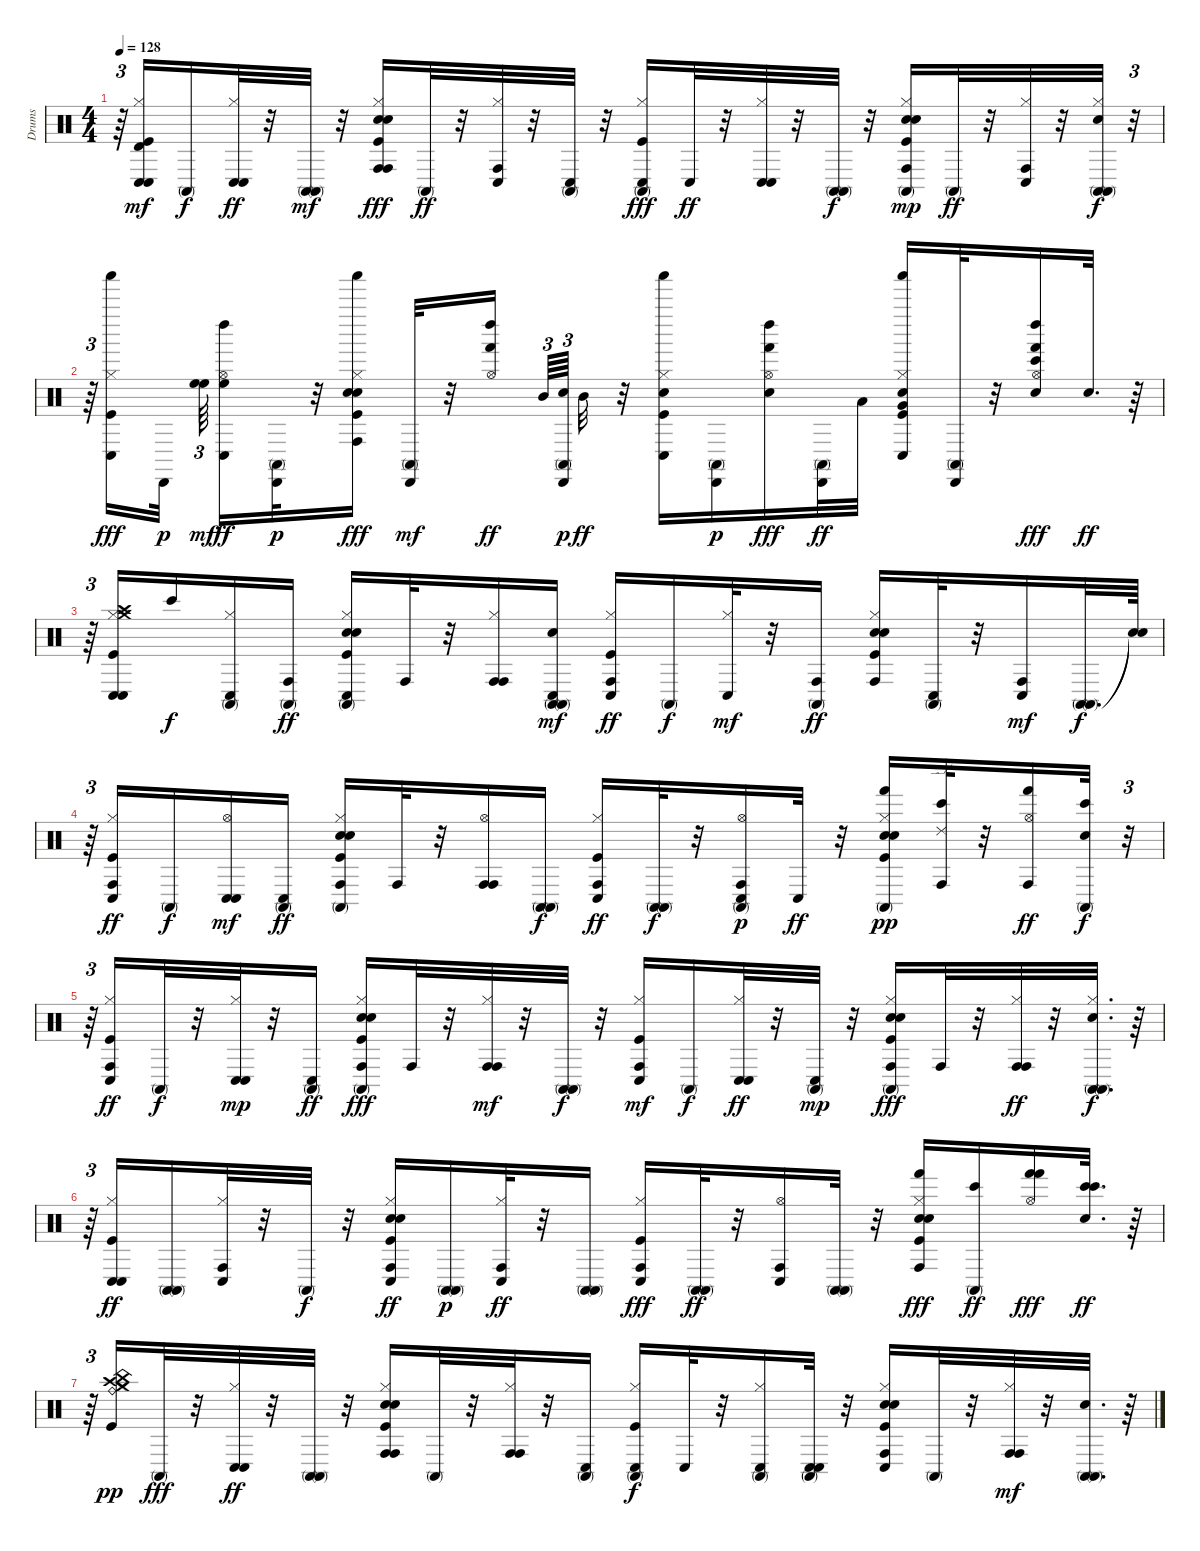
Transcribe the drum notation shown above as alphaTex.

\track ("Drums" "Drums") {instrument percussion}
\staff {score}
\articulation defaults
\ts (4 4)
\tempo 128
\clef neutral
\ks c
r.64{tu (3 2) dy f} ("Kick (hit)" "Hi-Hat (closed)" "Conga low (hit)" "Conga low (hit)" "Timbale high (hit)").16{dy mf} "Conga high (mute)".16{dy f} ("Hi-Hat (closed)" "Conga low (hit)" "Conga low (hit)").32{dy ff} r.32 ("Conga high (mute)" "Conga high (mute)").32{dy mf} r.32 ("Kick (hit)" "Snare (hit) 2" "Hand Clap (hit)" "Hi-Hat (closed)" "Conga high (hit)" "Conga high (hit)").16{dy fff} "Conga high (mute)".32{dy ff} r.32 ("Hi-Hat (closed)" "Conga low (hit)" "Conga high (hit)").32 r.32 ("Conga low (hit)" "Conga high (mute)").32 r.32 ("Kick (hit)" "Hi-Hat (closed)" "Conga high (mute)" "Conga low (hit)").16{dy fff} "Conga low (hit)".32{dy ff} r.32 ("Hi-Hat (closed)" "Conga low (hit)" "Conga low (hit)").32 r.32 ("Conga high (mute)" "Conga high (mute)").32{dy f} r.32 ("Kick (hit)" "Snare (hit) 2" "Hand Clap (hit)" "Hi-Hat (closed)" "Conga high (hit)" "Conga high (mute)").16{dy mp} "Conga high (mute)".32{dy ff} r.32 ("Hi-Hat (closed)" "Conga low (hit)" "Conga high (hit)").32 r.32 ("Snare (hit) 2" "Hi-Hat (closed)" "Conga high (mute)" "Conga high (mute)").32{dy f} r.32{tu (3 2)} |
r.64{tu (3 2)} ("Kick (hit)" "Hi-Hat (closed)" "Shaker (hit)" "Conga low (hit)").16{dy fff} "Cabasa (hit)".32{dy p beam splitsecondary} ("High Floor Tom (hit)" "High Floor Tom (hit)").64{tu (3 2) dy mf beam splitsecondary} ("Hi-Hat (open)" "Left Maraca (hit)" "High Floor Tom (hit)" "Conga low (hit)").16{dy ff} ("Cabasa (hit)" "Conga high (mute)").32{dy p} r.32 ("Kick (hit)" "Snare (hit) 2" "Hand Clap (hit)" "Hi-Hat (closed)" "Shaker (hit)" "Conga high (hit)").16{dy fff} ("Cabasa (hit)" "Conga high (mute)").32{dy mf} r.32 ("Hi-Hat (open)" "Left Maraca (hit)" "Hand (hit)").16{dy ff beam splitsecondary} "Mid Tom (hit)".64{tu (3 2)} ("Snare (hit) 2" "Cabasa (hit)" "Conga high (mute)").64{tu (3 2) dy p beam splitsecondary} "Mid Tom (hit)".32{dy ff} r.32 ("Kick (hit)" "Snare (hit) 2" "Hi-Hat (closed)" "Shaker (hit)" "Conga low (hit)").16 ("Cabasa (hit)" "Conga high (mute)").16{dy p} ("Snare (hit) 2" "Hi-Hat (open)" "Left Maraca (hit)" "Hand (hit)").16{dy fff} ("Cabasa (hit)" "Conga high (mute)").32{dy ff} "Low Tom (hit)".32 ("Kick (hit)" "Hand Clap (hit)" "Hi-Hat (closed)" "Shaker (hit)" "Conga low (hit)" "Very Low Tom (hit)").16 ("Cabasa (hit)" "Conga high (mute)").32 r.32 ("Snare (hit) 2" "Hi-Hat (open)" "Left Maraca (hit)" "Hand (hit)" "Bongo High (hit)").16{dy fff} "Snare (hit) 2".32{d dy ff} r.64 |
r.64{tu (3 2)} ("Kick (hit)" "Hi-Hat (closed)" "Crash medium (hit)" "Crash high (hit)" "Conga low (hit)" "Conga low (hit)").16 "Bongo High (hit)".16{dy f} ("Hi-Hat (closed)" "Conga high (mute)" "Conga low (hit)").16 ("Conga high (hit)" "Conga high (mute)").16{dy ff} ("Kick (hit)" "Snare (hit) 2" "Hand Clap (hit)" "Hi-Hat (closed)" "Conga high (mute)" "Conga low (hit)").16 "Conga high (hit)".32 r.32 ("Hi-Hat (closed)" "Conga high (hit)" "Conga high (hit)").16 ("Snare (hit) 2" "Conga high (mute)" "Conga high (mute)" "Conga low (hit)").16{dy mf} ("Kick (hit)" "Hi-Hat (closed)" "Conga high (hit)" "Conga low (hit)").16{dy ff} "Conga high (mute)".16{dy f} ("Hi-Hat (closed)" "Conga low (hit)").32{dy mf} r.32 ("Conga high (hit)" "Conga high (mute)").16{dy ff} ("Kick (hit)" "Snare (hit) 2" "Hand Clap (hit)" "Hi-Hat (closed)" "Conga high (hit)").16 ("Conga high (mute)" "Conga low (hit)").32 r.32 ("Conga low (hit)" "Conga high (hit)").16{dy mf} ("Conga high (mute)" "Conga high (mute)").32{d dy f} ("Snare (hit)"{t} "Snare (hit)"{t}).64 |
r.64{tu (3 2)} ("Kick (hit)" "Hi-Hat (closed)" "Conga high (hit)" "Conga low (hit)").16{dy ff} "Conga high (mute)".16{dy f} ("Hi-Hat (open)" "Conga low (hit)" "Conga low (hit)").16{dy mf} ("Conga low (hit)" "Conga high (mute)").16{dy ff} ("Kick (hit)" "Snare (hit) 2" "Hand Clap (hit)" "Hi-Hat (closed)" "Conga high (mute)" "Conga high (hit)").16 "Conga high (hit)".32 r.32 ("Hi-Hat (open)" "Conga high (hit)" "Conga high (hit)").16 ("Conga high (mute)" "Conga high (mute)").16{dy f} ("Kick (hit)" "Hi-Hat (closed)" "Conga high (hit)" "Conga low (hit)").16{dy ff} ("Conga high (mute)" "Conga high (mute)").32{dy f} r.32 ("Hi-Hat (open)" "Conga low (hit)" "Conga high (hit)" "Conga high (mute)").16{dy p} "Conga low (hit)".32{dy ff} r.32 ("Kick (hit)" "Snare (hit) 2" "Hand Clap (hit)" "Hi-Hat (closed)" "Conga high (mute)" "Hand (hit)").16{dy pp} ("Conga high (hit)" "Bongo High (hit)" "Ride (edge) 2").32 r.32 ("Hi-Hat (open)" "Conga high (hit)" "Hand (hit)").16{dy ff} ("Snare (hit) 2" "Conga high (mute)" "Bongo High (hit)").32{dy f} r.32{tu (3 2)} |
r.64{tu (3 2)} ("Kick (hit)" "Hi-Hat (closed)" "Conga high (hit)" "Conga low (hit)").16{dy ff} "Conga high (mute)".32{dy f} r.32 ("Hi-Hat (closed)" "Conga low (hit)" "Conga low (hit)").32{dy mp} r.32 ("Conga low (hit)" "Conga high (mute)").16{dy ff} ("Kick (hit)" "Snare (hit) 2" "Hand Clap (hit)" "Hi-Hat (closed)" "Conga high (mute)" "Conga high (hit)").16{dy fff} "Conga high (hit)".32 r.32 ("Hi-Hat (closed)" "Conga high (hit)" "Conga high (hit)").32{dy mf} r.32 ("Conga high (mute)" "Conga high (mute)").32{dy f} r.32 ("Kick (hit)" "Hi-Hat (closed)" "Conga high (hit)" "Conga low (hit)").16{dy mf} "Conga high (mute)".16{dy f} ("Hi-Hat (closed)" "Conga low (hit)" "Conga low (hit)").32{dy ff} r.32 ("Conga low (hit)" "Conga high (mute)").32{dy mp} r.32 ("Kick (hit)" "Snare (hit) 2" "Hand Clap (hit)" "Hi-Hat (closed)" "Conga high (mute)" "Conga high (hit)").16{dy fff} "Conga high (hit)".32 r.32 ("Hi-Hat (closed)" "Conga high (hit)" "Conga high (hit)").32{dy ff} r.32 ("Snare (hit) 2" "Hi-Hat (closed)" "Conga high (mute)" "Conga high (mute)").32{d dy f} r.64 |
r.64{tu (3 2)} ("Kick (hit)" "Hi-Hat (closed)" "Conga low (hit)" "Conga low (hit)").16{dy ff} ("Conga high (mute)" "Conga high (mute)").16 ("Hi-Hat (closed)" "Conga high (hit)" "Conga low (hit)").32 r.32 "Conga high (mute)".32{dy f} r.32 ("Kick (hit)" "Snare (hit) 2" "Hand Clap (hit)" "Hi-Hat (closed)" "Conga low (hit)" "Conga high (hit)").16{dy ff} ("Conga high (mute)" "Conga high (mute)").16{dy p} ("Hi-Hat (closed)" "Conga high (hit)" "Conga low (hit)").32{dy ff} r.32 ("Conga high (mute)" "Conga high (mute)").16 ("Kick (hit)" "Hi-Hat (closed)" "Conga low (hit)" "Conga high (hit)").16{dy fff} ("Conga high (mute)" "Conga high (mute)").32{dy ff} r.32 ("Hi-Hat (open)" "Conga high (hit)" "Conga low (hit)").16 ("Conga high (mute)" "Conga high (mute)").32 r.32 ("Kick (hit)" "Snare (hit) 2" "Hand Clap (hit)" "Hi-Hat (closed)" "Hand (hit)" "Conga high (hit)").16{dy fff} ("Bongo High (hit)" "Conga high (mute)").16{dy ff} ("Hi-Hat (open)" "Hand (hit)" "Hand (hit)").16{dy fff} ("Snare (hit) 2" "Bongo High (hit)" "Bongo High (hit)").32{d dy ff} r.64 |
r.64{tu (3 2)} ("Kick (hit)" "Hi-Hat (closed)" "Crash medium (hit)" "Crash high (hit)" "Ride (bell)" "China (hit)").16{dy pp} "Conga high (mute)".32{dy fff} r.32 ("Hi-Hat (closed)" "Conga low (hit)" "Conga low (hit)").32{dy ff} r.32 ("Conga high (mute)" "Conga high (mute)").32 r.32 ("Kick (hit)" "Snare (hit) 2" "Hand Clap (hit)" "Hi-Hat (closed)" "Conga high (hit)" "Conga high (hit)").16 "Conga high (mute)".32 r.32 ("Hi-Hat (closed)" "Conga high (hit)" "Conga high (hit)").32 r.32 ("Conga low (hit)" "Conga high (mute)").16 ("Kick (hit)" "Hi-Hat (closed)" "Conga high (mute)" "Conga low (hit)").16{dy f} "Conga low (hit)".32 r.32 ("Hi-Hat (closed)" "Conga high (mute)" "Conga low (hit)").16 ("Conga low (hit)" "Conga high (mute)" "Conga low (hit)").32 r.32 ("Kick (hit)" "Snare (hit) 2" "Hand Clap (hit)" "Hi-Hat (closed)" "Conga low (hit)" "Conga high (hit)").16 "Conga high (mute)".32 r.32 ("Hi-Hat (closed)" "Conga high (hit)" "Conga high (hit)").32{dy mf} r.32 ("Snare (hit) 2" "Conga high (mute)" "Conga high (mute)").32{d} r.64
